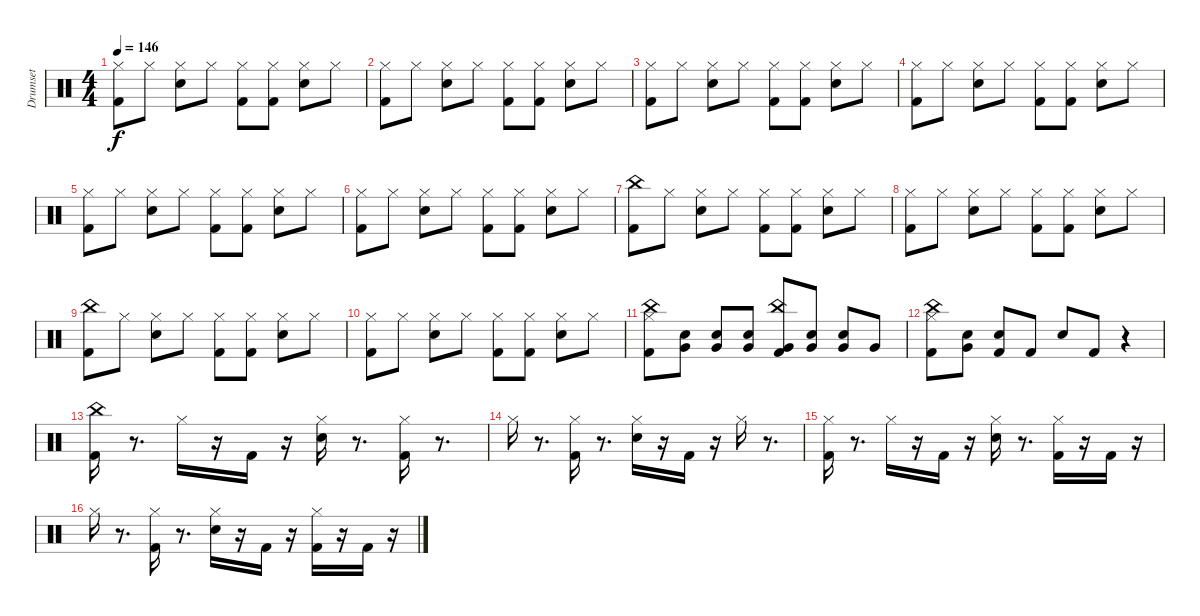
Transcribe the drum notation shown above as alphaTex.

\track ("Drumset" "Drumset") {instrument percussion}
\staff {score}
\articulation defaults
\ts (4 4)
\tempo 146
\clef neutral
\ks c
("Kick (hit) 2" "Hi-Hat (closed)").8{dy f} "Hi-Hat (closed)".8 ("Snare (hit) 2" "Hi-Hat (closed)").8 "Hi-Hat (closed)".8 ("Kick (hit) 2" "Hi-Hat (closed)").8 ("Kick (hit) 2" "Hi-Hat (closed)").8 ("Snare (hit) 2" "Hi-Hat (closed)").8 "Hi-Hat (closed)".8 |
("Kick (hit) 2" "Hi-Hat (closed)").8 "Hi-Hat (closed)".8 ("Snare (hit) 2" "Hi-Hat (closed)").8 "Hi-Hat (closed)".8 ("Kick (hit) 2" "Hi-Hat (closed)").8 ("Kick (hit) 2" "Hi-Hat (closed)").8 ("Snare (hit) 2" "Hi-Hat (closed)").8 "Hi-Hat (closed)".8 |
("Kick (hit) 2" "Hi-Hat (closed)").8 "Hi-Hat (closed)".8 ("Snare (hit) 2" "Hi-Hat (closed)").8 "Hi-Hat (closed)".8 ("Kick (hit) 2" "Hi-Hat (closed)").8 ("Kick (hit) 2" "Hi-Hat (closed)").8 ("Snare (hit) 2" "Hi-Hat (closed)").8 "Hi-Hat (closed)".8 |
("Kick (hit) 2" "Hi-Hat (closed)").8 "Hi-Hat (closed)".8 ("Snare (hit) 2" "Hi-Hat (closed)").8 "Hi-Hat (closed)".8 ("Kick (hit) 2" "Hi-Hat (closed)").8 ("Kick (hit) 2" "Hi-Hat (closed)").8 ("Snare (hit) 2" "Hi-Hat (closed)").8 "Hi-Hat (closed)".8 |
("Kick (hit) 2" "Hi-Hat (closed)").8 "Hi-Hat (closed)".8 ("Snare (hit) 2" "Hi-Hat (closed)").8 "Hi-Hat (closed)".8 ("Kick (hit) 2" "Hi-Hat (closed)").8 ("Kick (hit) 2" "Hi-Hat (closed)").8 ("Snare (hit) 2" "Hi-Hat (closed)").8 "Hi-Hat (closed)".8 |
("Kick (hit) 2" "Hi-Hat (closed)").8 "Hi-Hat (closed)".8 ("Snare (hit) 2" "Hi-Hat (closed)").8 "Hi-Hat (closed)".8 ("Kick (hit) 2" "Hi-Hat (closed)").8 ("Kick (hit) 2" "Hi-Hat (closed)").8 ("Snare (hit) 2" "Hi-Hat (closed)").8 "Hi-Hat (closed)".8 |
("Kick (hit) 2" "China (hit)").8 "Hi-Hat (closed)".8 ("Snare (hit) 2" "Hi-Hat (closed)").8 "Hi-Hat (closed)".8 ("Kick (hit) 2" "Hi-Hat (closed)").8 ("Kick (hit) 2" "Hi-Hat (closed)").8 ("Snare (hit) 2" "Hi-Hat (closed)").8 "Hi-Hat (closed)".8 |
("Kick (hit) 2" "Hi-Hat (closed)").8 "Hi-Hat (closed)".8 ("Snare (hit) 2" "Hi-Hat (closed)").8 "Hi-Hat (closed)".8 ("Kick (hit) 2" "Hi-Hat (closed)").8 ("Kick (hit) 2" "Hi-Hat (closed)").8 ("Snare (hit) 2" "Hi-Hat (closed)").8 "Hi-Hat (closed)".8 |
("Kick (hit) 2" "China (hit)").8 "Hi-Hat (closed)".8 ("Snare (hit) 2" "Hi-Hat (closed)").8 "Hi-Hat (closed)".8 ("Kick (hit) 2" "Hi-Hat (closed)").8 ("Kick (hit) 2" "Hi-Hat (closed)").8 ("Snare (hit) 2" "Hi-Hat (closed)").8 "Hi-Hat (closed)".8 |
("Kick (hit) 2" "Hi-Hat (closed)").8 "Hi-Hat (closed)".8 ("Snare (hit) 2" "Hi-Hat (closed)").8 "Hi-Hat (closed)".8 ("Kick (hit) 2" "Hi-Hat (closed)").8 ("Kick (hit) 2" "Hi-Hat (closed)").8 ("Snare (hit) 2" "Hi-Hat (closed)").8 "Hi-Hat (closed)".8 |
("Kick (hit) 2" "Hi-Hat (closed)" "China (hit)").8 ("Snare (hit) 2" "Very Low Tom (hit)").8 ("Snare (hit) 2" "Very Low Tom (hit)").8 ("Snare (hit) 2" "Very Low Tom (hit)").8 ("Kick (hit) 2" "Very Low Tom (hit)" "China (hit)").8 ("Snare (hit) 2" "Very Low Tom (hit)").8 ("Snare (hit) 2" "Very Low Tom (hit)").8 "Very Low Tom (hit)".8 |
("Kick (hit) 2" "Hi-Hat (closed)" "China (hit)").8 ("Snare (hit) 2" "Very Low Tom (hit)").8 ("Kick (hit) 2" "Electric Snare (hit)").8 "Kick (hit) 2".8 "Electric Snare (hit)".8 "Kick (hit) 2".8 r.4 |
("Kick (hit) 2" "China (hit)").16 r.8{d} "Hi-Hat (closed)".16 r.16 "Kick (hit) 2".16 r.16 ("Electric Snare (hit)" "Hi-Hat (closed)").16 r.8{d} ("Kick (hit) 2" "Hi-Hat (closed)").16 r.8{d} |
"Hi-Hat (closed)".16 r.8{d} ("Kick (hit) 2" "Hi-Hat (closed)").16 r.8{d} ("Electric Snare (hit)" "Hi-Hat (closed)").16 r.16 "Kick (hit) 2".16 r.16 "Hi-Hat (closed)".16 r.8{d} |
("Kick (hit) 2" "Hi-Hat (closed)").16 r.8{d} "Hi-Hat (closed)".16 r.16 "Kick (hit) 2".16 r.16 ("Electric Snare (hit)" "Hi-Hat (closed)").16 r.8{d} ("Kick (hit) 2" "Hi-Hat (closed)").16 r.16 "Kick (hit) 2".16 r.16 |
"Hi-Hat (closed)".16 r.8{d} ("Kick (hit) 2" "Hi-Hat (closed)").16 r.8{d} ("Electric Snare (hit)" "Hi-Hat (closed)").16 r.16 "Kick (hit) 2".16 r.16 ("Kick (hit) 2" "Hi-Hat (closed)").16 r.16 "Kick (hit) 2".16 r.16
